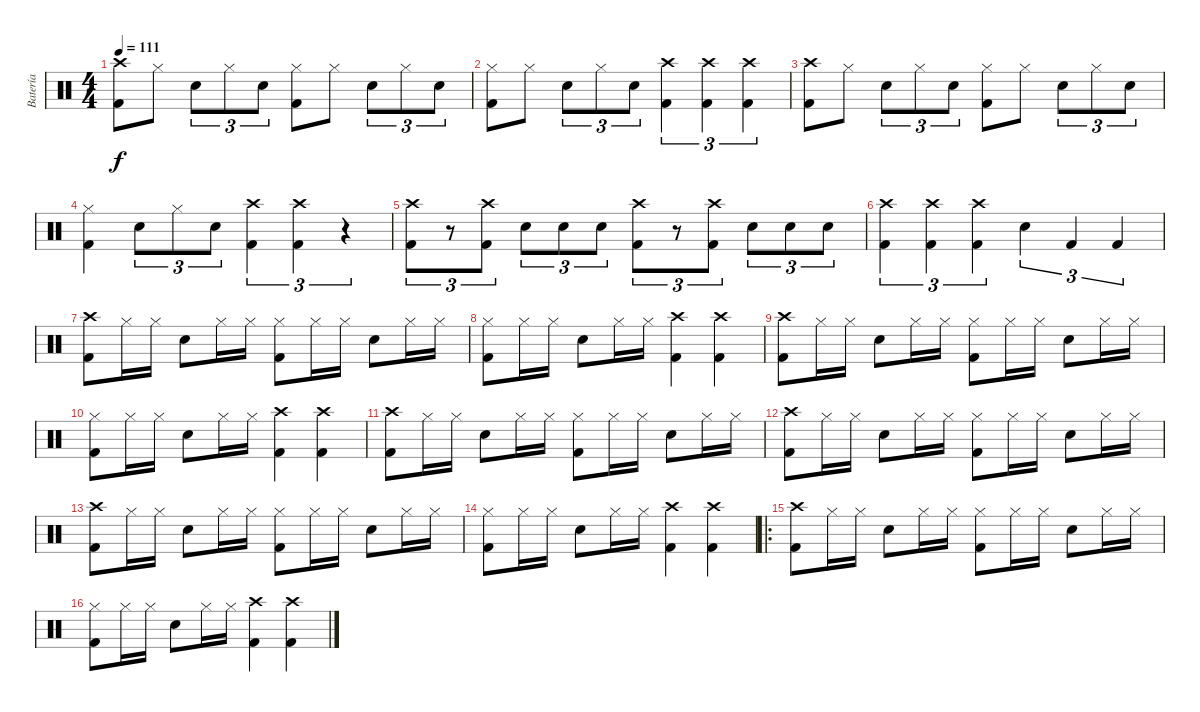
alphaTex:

\track ("Batería" "Batería") {instrument percussion}
\staff {score}
\articulation defaults
\ts (4 4)
\tempo 111
\clef neutral
\ks c
("Crash high (hit)" "Kick (hit) 2").8{dy f} "Hi-Hat (closed)".8 "Snare (hit) 2".8{tu (3 2)} "Hi-Hat (closed)".8{tu (3 2)} "Snare (hit) 2".8{tu (3 2)} ("Hi-Hat (closed)" "Kick (hit) 2").8 "Hi-Hat (closed)".8 "Snare (hit) 2".8{tu (3 2)} "Hi-Hat (closed)".8{tu (3 2)} "Snare (hit) 2".8{tu (3 2)} |
("Hi-Hat (closed)" "Kick (hit) 2").8 "Hi-Hat (closed)".8 "Snare (hit) 2".8{tu (3 2)} "Hi-Hat (closed)".8{tu (3 2)} "Snare (hit) 2".8{tu (3 2)} ("Crash high (hit)" "Kick (hit) 2").4{tu (3 2)} ("Crash high (hit)" "Kick (hit) 2").4{tu (3 2)} ("Crash high (hit)" "Kick (hit) 2").4{tu (3 2)} |
("Crash high (hit)" "Kick (hit) 2").8 "Hi-Hat (closed)".8 "Snare (hit) 2".8{tu (3 2)} "Hi-Hat (closed)".8{tu (3 2)} "Snare (hit) 2".8{tu (3 2)} ("Hi-Hat (closed)" "Kick (hit) 2").8 "Hi-Hat (closed)".8 "Snare (hit) 2".8{tu (3 2)} "Hi-Hat (closed)".8{tu (3 2)} "Snare (hit) 2".8{tu (3 2)} |
("Hi-Hat (closed)" "Kick (hit) 2").4 "Snare (hit) 2".8{tu (3 2)} "Hi-Hat (closed)".8{tu (3 2)} "Snare (hit) 2".8{tu (3 2)} ("Crash high (hit)" "Kick (hit) 2").4{tu (3 2)} ("Crash high (hit)" "Kick (hit) 2").4{tu (3 2)} r.4{tu (3 2)} |
("Crash high (hit)" "Kick (hit) 2").8{tu (3 2)} r.8{tu (3 2)} ("Crash high (hit)" "Kick (hit) 2").8{tu (3 2)} "Snare (hit) 2".8{tu (3 2)} "Snare (hit) 2".8{tu (3 2)} "Snare (hit) 2".8{tu (3 2)} ("Crash high (hit)" "Kick (hit) 2").8{tu (3 2)} r.8{tu (3 2)} ("Crash high (hit)" "Kick (hit) 2").8{tu (3 2)} "Snare (hit) 2".8{tu (3 2)} "Snare (hit) 2".8{tu (3 2)} "Snare (hit) 2".8{tu (3 2)} |
("Crash high (hit)" "Kick (hit) 2").4{tu (3 2)} ("Crash high (hit)" "Kick (hit) 2").4{tu (3 2)} ("Crash high (hit)" "Kick (hit) 2").4{tu (3 2)} "Snare (hit) 2".4{tu (3 2)} "Kick (hit) 2".4{tu (3 2)} "Kick (hit) 2".4{tu (3 2)} |
("Crash high (hit)" "Kick (hit) 2").8 "Hi-Hat (closed)".16 "Hi-Hat (closed)".16 "Snare (hit) 2".8 "Hi-Hat (closed)".16 "Hi-Hat (closed)".16 ("Hi-Hat (closed)" "Kick (hit) 2").8 "Hi-Hat (closed)".16 "Hi-Hat (closed)".16 "Snare (hit) 2".8 "Hi-Hat (closed)".16 "Hi-Hat (closed)".16 |
("Hi-Hat (closed)" "Kick (hit) 2").8 "Hi-Hat (closed)".16 "Hi-Hat (closed)".16 "Snare (hit) 2".8 "Hi-Hat (closed)".16 "Hi-Hat (closed)".16 ("Crash high (hit)" "Kick (hit) 2").4 ("Crash high (hit)" "Kick (hit) 2").4 |
("Crash high (hit)" "Kick (hit) 2").8 "Hi-Hat (closed)".16 "Hi-Hat (closed)".16 "Snare (hit) 2".8 "Hi-Hat (closed)".16 "Hi-Hat (closed)".16 ("Hi-Hat (closed)" "Kick (hit) 2").8 "Hi-Hat (closed)".16 "Hi-Hat (closed)".16 "Snare (hit) 2".8 "Hi-Hat (closed)".16 "Hi-Hat (closed)".16 |
("Hi-Hat (closed)" "Kick (hit) 2").8 "Hi-Hat (closed)".16 "Hi-Hat (closed)".16 "Snare (hit) 2".8 "Hi-Hat (closed)".16 "Hi-Hat (closed)".16 ("Crash high (hit)" "Kick (hit) 2").4 ("Crash high (hit)" "Kick (hit) 2").4 |
("Crash high (hit)" "Kick (hit) 2").8 "Hi-Hat (closed)".16 "Hi-Hat (closed)".16 "Snare (hit) 2".8 "Hi-Hat (closed)".16 "Hi-Hat (closed)".16 ("Hi-Hat (closed)" "Kick (hit) 2").8 "Hi-Hat (closed)".16 "Hi-Hat (closed)".16 "Snare (hit) 2".8 "Hi-Hat (closed)".16 "Hi-Hat (closed)".16 |
("Crash high (hit)" "Kick (hit) 2").8 "Hi-Hat (closed)".16 "Hi-Hat (closed)".16 "Snare (hit) 2".8 "Hi-Hat (closed)".16 "Hi-Hat (closed)".16 ("Hi-Hat (closed)" "Kick (hit) 2").8 "Hi-Hat (closed)".16 "Hi-Hat (closed)".16 "Snare (hit) 2".8 "Hi-Hat (closed)".16 "Hi-Hat (closed)".16 |
("Crash high (hit)" "Kick (hit) 2").8 "Hi-Hat (closed)".16 "Hi-Hat (closed)".16 "Snare (hit) 2".8 "Hi-Hat (closed)".16 "Hi-Hat (closed)".16 ("Hi-Hat (closed)" "Kick (hit) 2").8 "Hi-Hat (closed)".16 "Hi-Hat (closed)".16 "Snare (hit) 2".8 "Hi-Hat (closed)".16 "Hi-Hat (closed)".16 |
("Hi-Hat (closed)" "Kick (hit) 2").8 "Hi-Hat (closed)".16 "Hi-Hat (closed)".16 "Snare (hit) 2".8 "Hi-Hat (closed)".16 "Hi-Hat (closed)".16 ("Crash high (hit)" "Kick (hit) 2").4 ("Crash high (hit)" "Kick (hit) 2").4 |
\ro
("Crash high (hit)" "Kick (hit) 2").8 "Hi-Hat (closed)".16 "Hi-Hat (closed)".16 "Snare (hit) 2".8 "Hi-Hat (closed)".16 "Hi-Hat (closed)".16 ("Hi-Hat (closed)" "Kick (hit) 2").8 "Hi-Hat (closed)".16 "Hi-Hat (closed)".16 "Snare (hit) 2".8 "Hi-Hat (closed)".16 "Hi-Hat (closed)".16 |
("Hi-Hat (closed)" "Kick (hit) 2").8 "Hi-Hat (closed)".16 "Hi-Hat (closed)".16 "Snare (hit) 2".8 "Hi-Hat (closed)".16 "Hi-Hat (closed)".16 ("Crash high (hit)" "Kick (hit) 2").4 ("Crash high (hit)" "Kick (hit) 2").4
